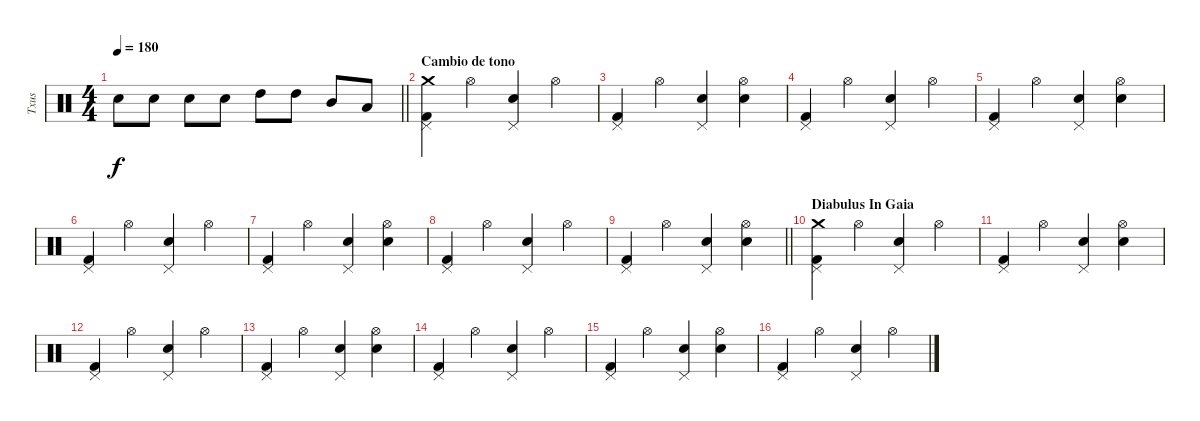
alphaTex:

\track ("Txus" "Txus") {instrument percussion}
\staff {score}
\articulation defaults
\ts (4 4)
\tempo 180
\clef neutral
\barLineRight lightlight
\ks c "Electric Snare (hit)".8{dy f} "Electric Snare (hit)".8 "Electric Snare (hit)".8 "Electric Snare (hit)".8 "High Tom (hit)".8 "High Tom (hit)".8 "Mid Tom (hit)".8 "Low Tom (hit)".8
|
\section ("" "Cambio de tono")
("Crash medium (hit)" "Pedal Hi-Hat (hit)" "Kick (hit) 2").4 "Hi-Hat (open)".4 ("Electric Snare (hit)" "Pedal Hi-Hat (hit)").4 "Hi-Hat (open)".4 |
("Pedal Hi-Hat (hit)" "Kick (hit) 2").4 "Hi-Hat (open)".4 ("Electric Snare (hit)" "Pedal Hi-Hat (hit)").4 ("Hi-Hat (open)" "Electric Snare (hit)").4 |
("Pedal Hi-Hat (hit)" "Kick (hit) 2").4 "Hi-Hat (open)".4 ("Electric Snare (hit)" "Pedal Hi-Hat (hit)").4 "Hi-Hat (open)".4 |
("Pedal Hi-Hat (hit)" "Kick (hit) 2").4 "Hi-Hat (open)".4 ("Electric Snare (hit)" "Pedal Hi-Hat (hit)").4 ("Hi-Hat (open)" "Electric Snare (hit)").4 |
("Pedal Hi-Hat (hit)" "Kick (hit) 2").4 "Hi-Hat (open)".4 ("Electric Snare (hit)" "Pedal Hi-Hat (hit)").4 "Hi-Hat (open)".4 |
("Pedal Hi-Hat (hit)" "Kick (hit) 2").4 "Hi-Hat (open)".4 ("Electric Snare (hit)" "Pedal Hi-Hat (hit)").4 ("Hi-Hat (open)" "Electric Snare (hit)").4 |
("Pedal Hi-Hat (hit)" "Kick (hit) 2").4 "Hi-Hat (open)".4 ("Electric Snare (hit)" "Pedal Hi-Hat (hit)").4 "Hi-Hat (open)".4 |
\barLineRight lightlight
("Pedal Hi-Hat (hit)" "Kick (hit) 2").4 "Hi-Hat (open)".4 ("Electric Snare (hit)" "Pedal Hi-Hat (hit)").4 ("Hi-Hat (open)" "Electric Snare (hit)").4 |
\section ("" "Diabulus In Gaia")
("Crash medium (hit)" "Pedal Hi-Hat (hit)" "Kick (hit) 2").4 "Hi-Hat (open)".4 ("Electric Snare (hit)" "Pedal Hi-Hat (hit)").4 "Hi-Hat (open)".4 |
("Pedal Hi-Hat (hit)" "Kick (hit) 2").4 "Hi-Hat (open)".4 ("Electric Snare (hit)" "Pedal Hi-Hat (hit)").4 ("Hi-Hat (open)" "Electric Snare (hit)").4 |
("Pedal Hi-Hat (hit)" "Kick (hit) 2").4 "Hi-Hat (open)".4 ("Electric Snare (hit)" "Pedal Hi-Hat (hit)").4 "Hi-Hat (open)".4 |
("Pedal Hi-Hat (hit)" "Kick (hit) 2").4 "Hi-Hat (open)".4 ("Electric Snare (hit)" "Pedal Hi-Hat (hit)").4 ("Hi-Hat (open)" "Electric Snare (hit)").4 |
("Pedal Hi-Hat (hit)" "Kick (hit) 2").4 "Hi-Hat (open)".4 ("Electric Snare (hit)" "Pedal Hi-Hat (hit)").4 "Hi-Hat (open)".4 |
("Pedal Hi-Hat (hit)" "Kick (hit) 2").4 "Hi-Hat (open)".4 ("Electric Snare (hit)" "Pedal Hi-Hat (hit)").4 ("Hi-Hat (open)" "Electric Snare (hit)").4 |
("Pedal Hi-Hat (hit)" "Kick (hit) 2").4 "Hi-Hat (open)".4 ("Electric Snare (hit)" "Pedal Hi-Hat (hit)").4 "Hi-Hat (open)".4
